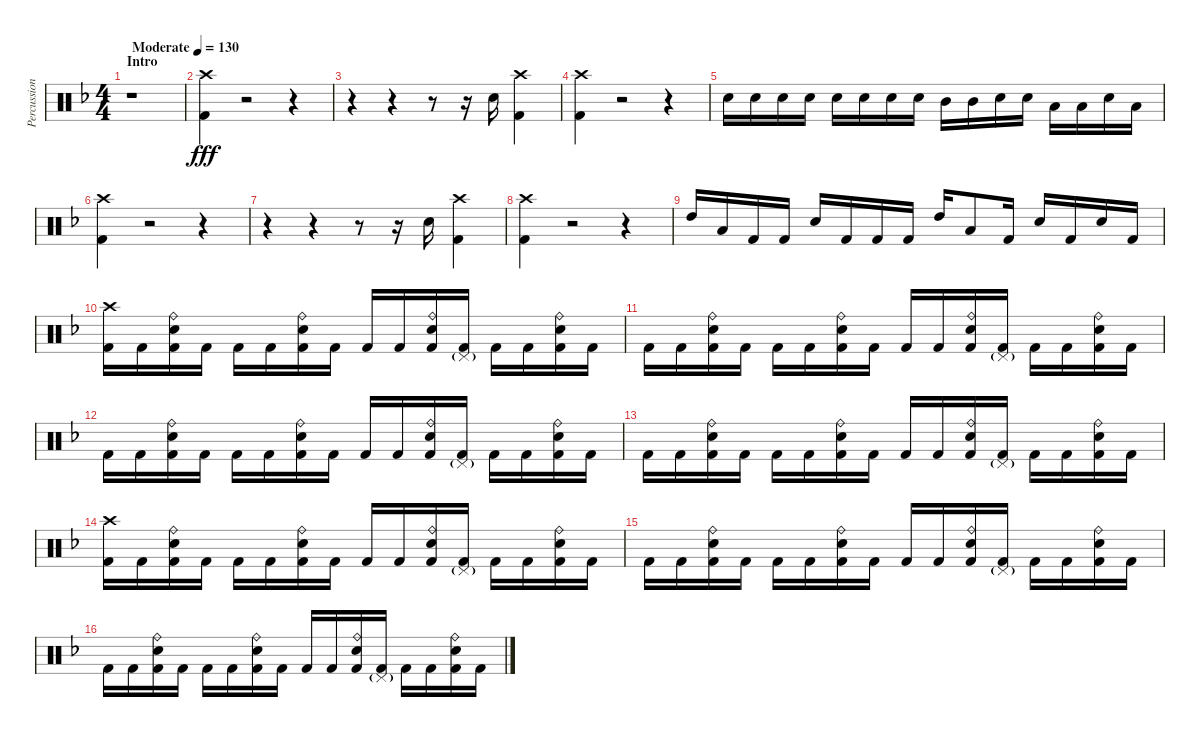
\track ("Percussion" "Percussion") {instrument percussion}
\staff {score}
\articulation defaults
\ts (4 4)
\section ("" "Intro")
\tempo (130 "Moderate")
\clef neutral
\ks dminor
r.1{dy fff} |
("Crash high (hit)" "Kick (hit) 2").4 r.2 r.4 |
r.4 r.4 r.8 r.16 "Electric Snare (hit)".16 ("Crash high (hit)" "Kick (hit) 2").4 |
("Crash high (hit)" "Kick (hit) 2").4 r.2 r.4 |
"Electric Snare (hit)".16 "Electric Snare (hit)".16 "Electric Snare (hit)".16 "Electric Snare (hit)".16 "Electric Snare (hit)".16 "Electric Snare (hit)".16 "Electric Snare (hit)".16 "Electric Snare (hit)".16 "Mid Tom (hit)".16 "Mid Tom (hit)".16 "Electric Snare (hit)".16 "Electric Snare (hit)".16 "Low Tom (hit)".16 "Low Tom (hit)".16 "Electric Snare (hit)".16 "Low Tom (hit)".16 |
("Crash high (hit)" "Kick (hit) 2").4 r.2 r.4 |
r.4 r.4 r.8 r.16 "Electric Snare (hit)".16 ("Crash high (hit)" "Kick (hit) 2").4 |
("Crash high (hit)" "Kick (hit) 2").4 r.2 r.4 |
"High Tom (hit)".16 "Low Tom (hit)".16 "Kick (hit) 2".16 "Kick (hit) 2".16 "Electric Snare (hit)".16 "Kick (hit) 2".16 "Kick (hit) 2".16 "Kick (hit) 2".16 "High Tom (hit)".16 "Low Tom (hit)".8 "Kick (hit) 2".16 "Electric Snare (hit)".16 "Kick (hit) 2".16 "Electric Snare (hit)".16 "Kick (hit) 2".16 |
("Crash high (hit)" "Kick (hit) 2").16 "Kick (hit) 2".16 ("Ride (bell)" "Electric Snare (hit)" "Kick (hit) 2").16 "Kick (hit) 2".16 "Kick (hit) 2".16 "Kick (hit) 2".16 ("Ride (bell)" "Electric Snare (hit)" "Kick (hit) 2").16 "Kick (hit) 2".16 "Kick (hit) 2".16 "Kick (hit) 2".16 ("Ride (bell)" "Electric Snare (hit)" "Kick (hit) 2").16 ("Pedal Hi-Hat (hit)"{g} "Kick (hit) 2").16 "Kick (hit) 2".16 "Kick (hit) 2".16 ("Ride (bell)" "Electric Snare (hit)" "Kick (hit) 2").16 "Kick (hit) 2".16 |
"Kick (hit) 2".16 "Kick (hit) 2".16 ("Ride (bell)" "Electric Snare (hit)" "Kick (hit) 2").16 "Kick (hit) 2".16 "Kick (hit) 2".16 "Kick (hit) 2".16 ("Ride (bell)" "Electric Snare (hit)" "Kick (hit) 2").16 "Kick (hit) 2".16 "Kick (hit) 2".16 "Kick (hit) 2".16 ("Ride (bell)" "Electric Snare (hit)" "Kick (hit) 2").16 ("Pedal Hi-Hat (hit)"{g} "Kick (hit) 2").16 "Kick (hit) 2".16 "Kick (hit) 2".16 ("Ride (bell)" "Electric Snare (hit)" "Kick (hit) 2").16 "Kick (hit) 2".16 |
"Kick (hit) 2".16 "Kick (hit) 2".16 ("Ride (bell)" "Electric Snare (hit)" "Kick (hit) 2").16 "Kick (hit) 2".16 "Kick (hit) 2".16 "Kick (hit) 2".16 ("Ride (bell)" "Electric Snare (hit)" "Kick (hit) 2").16 "Kick (hit) 2".16 "Kick (hit) 2".16 "Kick (hit) 2".16 ("Ride (bell)" "Electric Snare (hit)" "Kick (hit) 2").16 ("Pedal Hi-Hat (hit)"{g} "Kick (hit) 2").16 "Kick (hit) 2".16 "Kick (hit) 2".16 ("Ride (bell)" "Electric Snare (hit)" "Kick (hit) 2").16 "Kick (hit) 2".16 |
"Kick (hit) 2".16 "Kick (hit) 2".16 ("Ride (bell)" "Electric Snare (hit)" "Kick (hit) 2").16 "Kick (hit) 2".16 "Kick (hit) 2".16 "Kick (hit) 2".16 ("Ride (bell)" "Electric Snare (hit)" "Kick (hit) 2").16 "Kick (hit) 2".16 "Kick (hit) 2".16 "Kick (hit) 2".16 ("Ride (bell)" "Electric Snare (hit)" "Kick (hit) 2").16 ("Pedal Hi-Hat (hit)"{g} "Kick (hit) 2").16 "Kick (hit) 2".16 "Kick (hit) 2".16 ("Ride (bell)" "Electric Snare (hit)" "Kick (hit) 2").16 "Kick (hit) 2".16 |
("Crash high (hit)" "Kick (hit) 2").16 "Kick (hit) 2".16 ("Ride (bell)" "Electric Snare (hit)" "Kick (hit) 2").16 "Kick (hit) 2".16 "Kick (hit) 2".16 "Kick (hit) 2".16 ("Ride (bell)" "Electric Snare (hit)" "Kick (hit) 2").16 "Kick (hit) 2".16 "Kick (hit) 2".16 "Kick (hit) 2".16 ("Ride (bell)" "Electric Snare (hit)" "Kick (hit) 2").16 ("Pedal Hi-Hat (hit)"{g} "Kick (hit) 2").16 "Kick (hit) 2".16 "Kick (hit) 2".16 ("Ride (bell)" "Electric Snare (hit)" "Kick (hit) 2").16 "Kick (hit) 2".16 |
"Kick (hit) 2".16 "Kick (hit) 2".16 ("Ride (bell)" "Electric Snare (hit)" "Kick (hit) 2").16 "Kick (hit) 2".16 "Kick (hit) 2".16 "Kick (hit) 2".16 ("Ride (bell)" "Electric Snare (hit)" "Kick (hit) 2").16 "Kick (hit) 2".16 "Kick (hit) 2".16 "Kick (hit) 2".16 ("Ride (bell)" "Electric Snare (hit)" "Kick (hit) 2").16 ("Pedal Hi-Hat (hit)"{g} "Kick (hit) 2").16 "Kick (hit) 2".16 "Kick (hit) 2".16 ("Ride (bell)" "Electric Snare (hit)" "Kick (hit) 2").16 "Kick (hit) 2".16 |
"Kick (hit) 2".16 "Kick (hit) 2".16 ("Ride (bell)" "Electric Snare (hit)" "Kick (hit) 2").16 "Kick (hit) 2".16 "Kick (hit) 2".16 "Kick (hit) 2".16 ("Ride (bell)" "Electric Snare (hit)" "Kick (hit) 2").16 "Kick (hit) 2".16 "Kick (hit) 2".16 "Kick (hit) 2".16 ("Ride (bell)" "Electric Snare (hit)" "Kick (hit) 2").16 ("Pedal Hi-Hat (hit)"{g} "Kick (hit) 2").16 "Kick (hit) 2".16 "Kick (hit) 2".16 ("Ride (bell)" "Electric Snare (hit)" "Kick (hit) 2").16 "Kick (hit) 2".16
